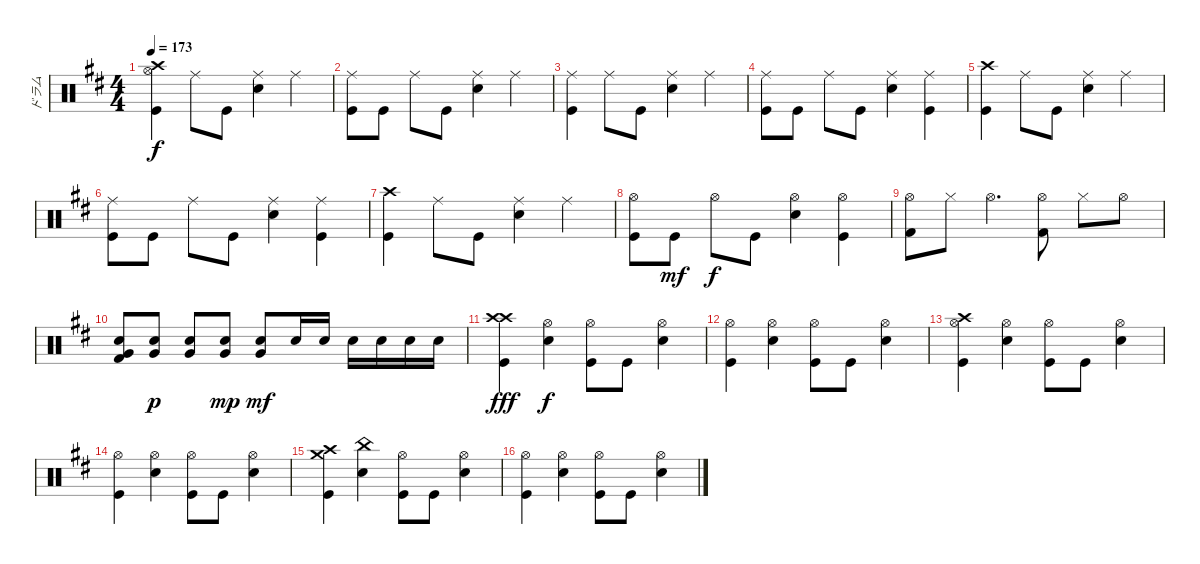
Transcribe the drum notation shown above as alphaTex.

\track ("ドラム" "ドラム") {mute instrument percussion}
\staff {score}
\articulation defaults
\ts (4 4)
\tempo 173
\clef neutral
\ks d
("Crash high (hit)" "Hi-Hat (open)" "Kick (hit)").4{dy f} "Ride (middle)".8 "Kick (hit)".8 ("Ride (middle)" "Snare (hit) 2").4 "Ride (middle)".4 |
("Ride (middle)" "Kick (hit)").8 "Kick (hit)".8 "Ride (middle)".8 "Kick (hit)".8 ("Ride (middle)" "Snare (hit) 2").4 "Ride (middle)".4 |
("Ride (middle)" "Kick (hit)").4 "Ride (middle)".8 "Kick (hit)".8 ("Ride (middle)" "Snare (hit) 2").4 "Ride (middle)".4 |
("Ride (middle)" "Kick (hit)").8 "Kick (hit)".8 "Ride (middle)".8 "Kick (hit)".8 ("Ride (middle)" "Snare (hit) 2").4 ("Ride (middle)" "Kick (hit)").4 |
("Crash high (hit)" "Kick (hit)").4 "Ride (middle)".8 "Kick (hit)".8 ("Ride (middle)" "Snare (hit) 2").4 "Ride (middle)".4 |
("Ride (middle)" "Kick (hit)").8 "Kick (hit)".8 "Ride (middle)".8 "Kick (hit)".8 ("Ride (middle)" "Snare (hit) 2").4 ("Ride (middle)" "Kick (hit)").4 |
("Crash high (hit)" "Kick (hit)").4 "Ride (middle)".8 "Kick (hit)".8 ("Ride (middle)" "Snare (hit) 2").4 "Ride (middle)".4 |
("Hi-Hat (open)" "Kick (hit)").8 "Kick (hit)".8{dy mf} "Hi-Hat (open)".8{dy f} "Kick (hit)".8 ("Hi-Hat (open)" "Snare (hit) 2").4 ("Hi-Hat (open)" "Kick (hit)").4 |
("Hi-Hat (open)" "Kick (hit) 2").8 "Hi-Hat (closed)".8 "Hi-Hat (open)".4{d} ("Hi-Hat (open)" "Kick (hit) 2").8 "Hi-Hat (closed)".8 "Hi-Hat (open)".8 |
("Very Low Tom (hit)" "Kick (hit) 2" "Electric Snare (hit)").8 ("Very Low Tom (hit)" "Snare (hit) 2").8{dy p} ("Very Low Tom (hit)" "Snare (hit) 2").8 ("Very Low Tom (hit)" "Snare (hit) 2").8{dy mp} ("Very Low Tom (hit)" "Snare (hit) 2").8{dy mf} "Snare (hit) 2".16 "Snare (hit) 2".16 "Snare (hit) 2".16 "Snare (hit) 2".16 "Snare (hit) 2".16 "Snare (hit) 2".16 |
("Crash high (hit)" "Crash high (hit)" "Kick (hit)").4{dy fff} ("Hi-Hat (open)" "Snare (hit) 2").4{dy f} ("Hi-Hat (open)" "Kick (hit)").8 "Kick (hit)".8 ("Hi-Hat (open)" "Snare (hit) 2").4 |
("Hi-Hat (open)" "Kick (hit)").4 ("Hi-Hat (open)" "Snare (hit) 2").4 ("Hi-Hat (open)" "Kick (hit)").8 "Kick (hit)".8 ("Hi-Hat (open)" "Snare (hit) 2").4 |
("Crash high (hit)" "Hi-Hat (open)" "Kick (hit)").4 ("Hi-Hat (open)" "Snare (hit) 2").4 ("Hi-Hat (open)" "Kick (hit)").8 "Kick (hit)".8 ("Hi-Hat (open)" "Snare (hit) 2").4 |
("Hi-Hat (open)" "Kick (hit)").4 ("Hi-Hat (open)" "Snare (hit) 2").4 ("Hi-Hat (open)" "Kick (hit)").8 "Kick (hit)".8 ("Hi-Hat (open)" "Snare (hit) 2").4 |
("Crash high (hit)" "Crash medium (hit)" "Kick (hit)").4 ("China (hit)" "Snare (hit) 2").4 ("Hi-Hat (open)" "Kick (hit)").8 "Kick (hit)".8 ("Hi-Hat (open)" "Snare (hit) 2").4 |
("Hi-Hat (open)" "Kick (hit)").4 ("Hi-Hat (open)" "Snare (hit) 2").4 ("Hi-Hat (open)" "Kick (hit)").8 "Kick (hit)".8 ("Hi-Hat (open)" "Snare (hit) 2").4
